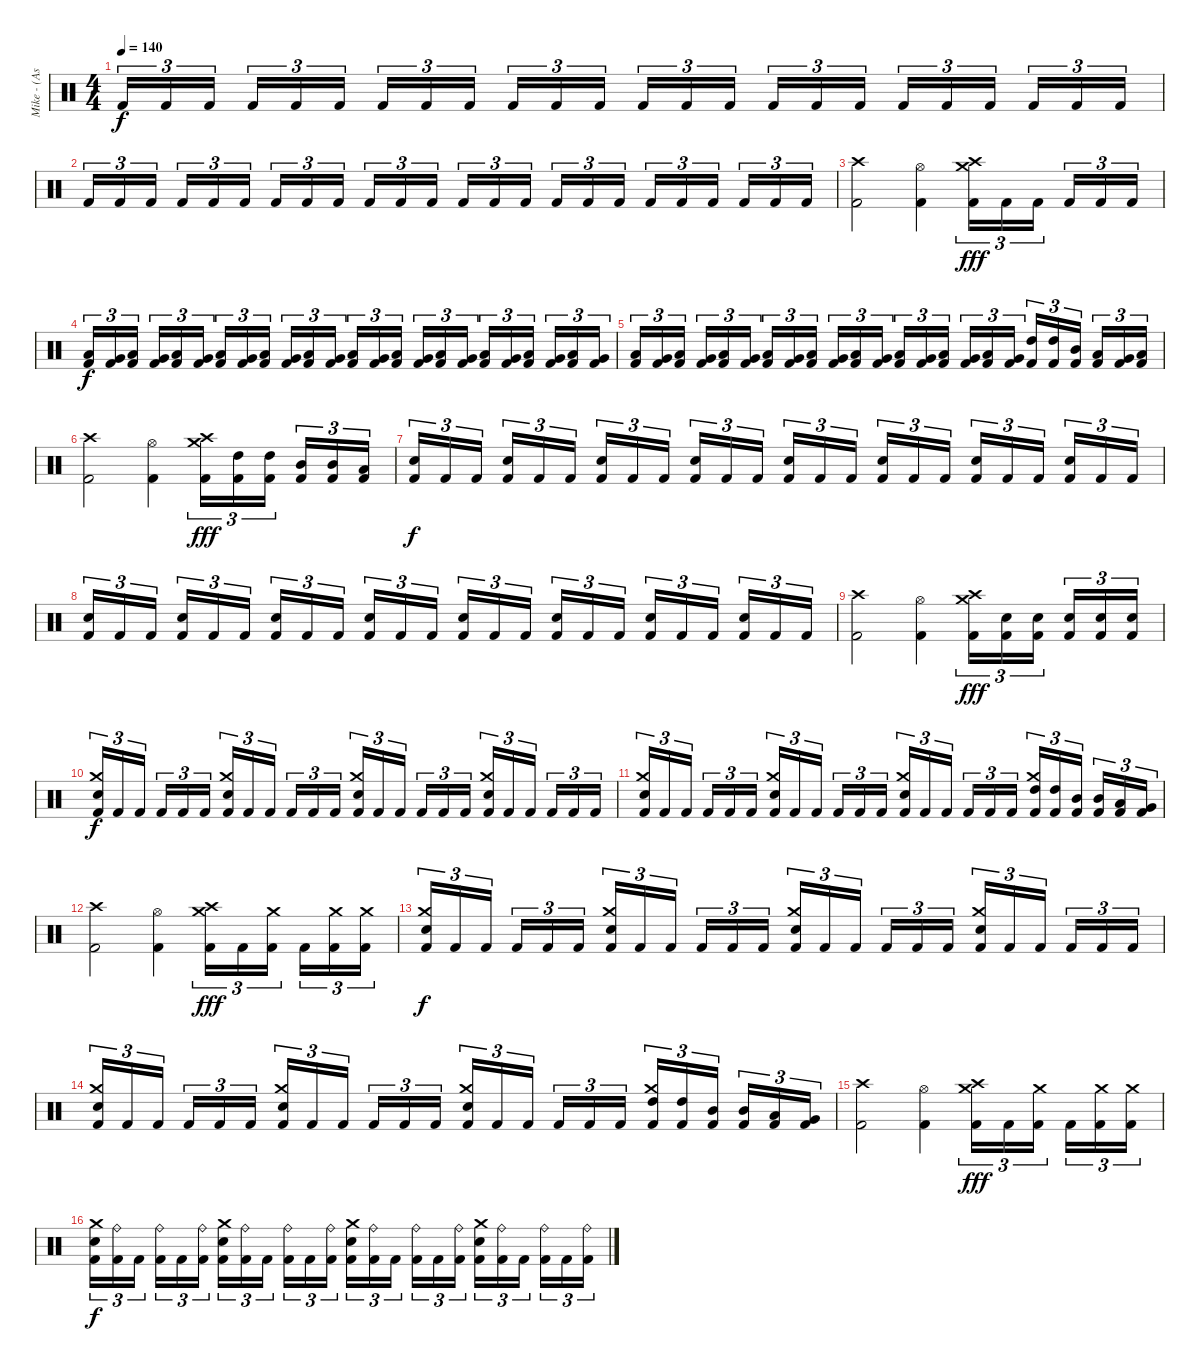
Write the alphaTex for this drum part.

\track ("Mike - (Assault and Battery)" "Mike - (As") {instrument percussion}
\staff {score}
\articulation defaults
\ts (4 4)
\tempo 140
\clef neutral
\ks c "Kick (hit) 2".16{tu (3 2) dy f balance 0} "Kick (hit) 2".16{tu (3 2)} "Kick (hit) 2".16{tu (3 2)} "Kick (hit) 2".16{tu (3 2)} "Kick (hit) 2".16{tu (3 2)} "Kick (hit) 2".16{tu (3 2)} "Kick (hit) 2".16{tu (3 2)} "Kick (hit) 2".16{tu (3 2)} "Kick (hit) 2".16{tu (3 2)} "Kick (hit) 2".16{tu (3 2)} "Kick (hit) 2".16{tu (3 2)} "Kick (hit) 2".16{tu (3 2)} "Kick (hit) 2".16{tu (3 2)} "Kick (hit) 2".16{tu (3 2)} "Kick (hit) 2".16{tu (3 2)} "Kick (hit) 2".16{tu (3 2)} "Kick (hit) 2".16{tu (3 2)} "Kick (hit) 2".16{tu (3 2)} "Kick (hit) 2".16{tu (3 2)} "Kick (hit) 2".16{tu (3 2)} "Kick (hit) 2".16{tu (3 2)} "Kick (hit) 2".16{tu (3 2)} "Kick (hit) 2".16{tu (3 2)} "Kick (hit) 2".16{tu (3 2)}
|
"Kick (hit) 2".16{tu (3 2) balance 0} "Kick (hit) 2".16{tu (3 2)} "Kick (hit) 2".16{tu (3 2)} "Kick (hit) 2".16{tu (3 2)} "Kick (hit) 2".16{tu (3 2)} "Kick (hit) 2".16{tu (3 2)} "Kick (hit) 2".16{tu (3 2)} "Kick (hit) 2".16{tu (3 2)} "Kick (hit) 2".16{tu (3 2)} "Kick (hit) 2".16{tu (3 2)} "Kick (hit) 2".16{tu (3 2)} "Kick (hit) 2".16{tu (3 2)} "Kick (hit) 2".16{tu (3 2)} "Kick (hit) 2".16{tu (3 2)} "Kick (hit) 2".16{tu (3 2)} "Kick (hit) 2".16{tu (3 2)} "Kick (hit) 2".16{tu (3 2)} "Kick (hit) 2".16{tu (3 2)} "Kick (hit) 2".16{tu (3 2)} "Kick (hit) 2".16{tu (3 2)} "Kick (hit) 2".16{tu (3 2)} "Kick (hit) 2".16{tu (3 2)} "Kick (hit) 2".16{tu (3 2)} "Kick (hit) 2".16{tu (3 2)} |
("Crash high (hit)" "Kick (hit) 2").2{balance 8} ("Hi-Hat (open)" "Kick (hit) 2").4 ("Crash medium (hit)" "Crash high (hit)" "Kick (hit) 2").16{tu (3 2) dy fff} "Kick (hit) 2".16{tu (3 2)} "Kick (hit) 2".16{tu (3 2)} "Kick (hit) 2".16{tu (3 2)} "Kick (hit) 2".16{tu (3 2)} "Kick (hit) 2".16{tu (3 2)} |
("Low Floor Tom (hit)" "Kick (hit) 2").16{tu (3 2) dy f} ("Very Low Tom (hit)" "Kick (hit) 2").16{tu (3 2)} ("Low Floor Tom (hit)" "Kick (hit) 2").16{tu (3 2)} ("Very Low Tom (hit)" "Kick (hit) 2").16{tu (3 2)} ("Low Floor Tom (hit)" "Kick (hit) 2").16{tu (3 2)} ("Very Low Tom (hit)" "Kick (hit) 2").16{tu (3 2)} ("Low Floor Tom (hit)" "Kick (hit) 2").16{tu (3 2)} ("Very Low Tom (hit)" "Kick (hit) 2").16{tu (3 2)} ("Low Floor Tom (hit)" "Kick (hit) 2").16{tu (3 2)} ("Very Low Tom (hit)" "Kick (hit) 2").16{tu (3 2)} ("Low Floor Tom (hit)" "Kick (hit) 2").16{tu (3 2)} ("Very Low Tom (hit)" "Kick (hit) 2").16{tu (3 2)} ("Low Floor Tom (hit)" "Kick (hit) 2").16{tu (3 2)} ("Very Low Tom (hit)" "Kick (hit) 2").16{tu (3 2)} ("Low Floor Tom (hit)" "Kick (hit) 2").16{tu (3 2)} ("Very Low Tom (hit)" "Kick (hit) 2").16{tu (3 2)} ("Low Floor Tom (hit)" "Kick (hit) 2").16{tu (3 2)} ("Very Low Tom (hit)" "Kick (hit) 2").16{tu (3 2)} ("Low Floor Tom (hit)" "Kick (hit) 2").16{tu (3 2)} ("Very Low Tom (hit)" "Kick (hit) 2").16{tu (3 2)} ("Low Floor Tom (hit)" "Kick (hit) 2").16{tu (3 2)} ("Very Low Tom (hit)" "Kick (hit) 2").16{tu (3 2)} ("Low Floor Tom (hit)" "Kick (hit) 2").16{tu (3 2)} ("Very Low Tom (hit)" "Kick (hit) 2").16{tu (3 2)} |
("Low Floor Tom (hit)" "Kick (hit) 2").16{tu (3 2)} ("Very Low Tom (hit)" "Kick (hit) 2").16{tu (3 2)} ("Low Floor Tom (hit)" "Kick (hit) 2").16{tu (3 2)} ("Very Low Tom (hit)" "Kick (hit) 2").16{tu (3 2)} ("Low Floor Tom (hit)" "Kick (hit) 2").16{tu (3 2)} ("Very Low Tom (hit)" "Kick (hit) 2").16{tu (3 2)} ("Low Floor Tom (hit)" "Kick (hit) 2").16{tu (3 2)} ("Very Low Tom (hit)" "Kick (hit) 2").16{tu (3 2)} ("Low Floor Tom (hit)" "Kick (hit) 2").16{tu (3 2)} ("Very Low Tom (hit)" "Kick (hit) 2").16{tu (3 2)} ("Low Floor Tom (hit)" "Kick (hit) 2").16{tu (3 2)} ("Very Low Tom (hit)" "Kick (hit) 2").16{tu (3 2)} ("Low Floor Tom (hit)" "Kick (hit) 2").16{tu (3 2)} ("Very Low Tom (hit)" "Kick (hit) 2").16{tu (3 2)} ("Low Floor Tom (hit)" "Kick (hit) 2").16{tu (3 2)} ("Very Low Tom (hit)" "Kick (hit) 2").16{tu (3 2)} ("Low Floor Tom (hit)" "Kick (hit) 2").16{tu (3 2)} ("Very Low Tom (hit)" "Kick (hit) 2").16{tu (3 2)} ("High Tom (hit)" "Kick (hit) 2").16{tu (3 2)} ("High Tom (hit)" "Kick (hit) 2").16{tu (3 2)} ("Mid Tom (hit)" "Kick (hit) 2").16{tu (3 2)} ("Low Tom (hit)" "Kick (hit) 2").16{tu (3 2)} ("Very Low Tom (hit)" "Kick (hit) 2").16{tu (3 2)} ("Low Floor Tom (hit)" "Kick (hit) 2").16{tu (3 2)} |
("Crash high (hit)" "Kick (hit) 2").2 ("Hi-Hat (open)" "Kick (hit) 2").4 ("Crash medium (hit)" "Crash high (hit)" "Kick (hit) 2").16{tu (3 2) dy fff} ("High Tom (hit)" "Kick (hit) 2").16{tu (3 2)} ("High Tom (hit)" "Kick (hit) 2").16{tu (3 2)} ("Mid Tom (hit)" "Kick (hit) 2").16{tu (3 2)} ("Mid Tom (hit)" "Kick (hit) 2").16{tu (3 2)} ("Low Tom (hit)" "Kick (hit) 2").16{tu (3 2)} |
("Electric Snare (hit)" "Kick (hit) 2").16{tu (3 2) dy f} "Kick (hit) 2".16{tu (3 2)} "Kick (hit) 2".16{tu (3 2)} ("Electric Snare (hit)" "Kick (hit) 2").16{tu (3 2)} "Kick (hit) 2".16{tu (3 2)} "Kick (hit) 2".16{tu (3 2)} ("Electric Snare (hit)" "Kick (hit) 2").16{tu (3 2)} "Kick (hit) 2".16{tu (3 2)} "Kick (hit) 2".16{tu (3 2)} ("Electric Snare (hit)" "Kick (hit) 2").16{tu (3 2)} "Kick (hit) 2".16{tu (3 2)} "Kick (hit) 2".16{tu (3 2)} ("Electric Snare (hit)" "Kick (hit) 2").16{tu (3 2)} "Kick (hit) 2".16{tu (3 2)} "Kick (hit) 2".16{tu (3 2)} ("Electric Snare (hit)" "Kick (hit) 2").16{tu (3 2)} "Kick (hit) 2".16{tu (3 2)} "Kick (hit) 2".16{tu (3 2)} ("Electric Snare (hit)" "Kick (hit) 2").16{tu (3 2)} "Kick (hit) 2".16{tu (3 2)} "Kick (hit) 2".16{tu (3 2)} ("Electric Snare (hit)" "Kick (hit) 2").16{tu (3 2)} "Kick (hit) 2".16{tu (3 2)} "Kick (hit) 2".16{tu (3 2)} |
("Electric Snare (hit)" "Kick (hit) 2").16{tu (3 2)} "Kick (hit) 2".16{tu (3 2)} "Kick (hit) 2".16{tu (3 2)} ("Electric Snare (hit)" "Kick (hit) 2").16{tu (3 2)} "Kick (hit) 2".16{tu (3 2)} "Kick (hit) 2".16{tu (3 2)} ("Electric Snare (hit)" "Kick (hit) 2").16{tu (3 2)} "Kick (hit) 2".16{tu (3 2)} "Kick (hit) 2".16{tu (3 2)} ("Electric Snare (hit)" "Kick (hit) 2").16{tu (3 2)} "Kick (hit) 2".16{tu (3 2)} "Kick (hit) 2".16{tu (3 2)} ("Electric Snare (hit)" "Kick (hit) 2").16{tu (3 2)} "Kick (hit) 2".16{tu (3 2)} "Kick (hit) 2".16{tu (3 2)} ("Electric Snare (hit)" "Kick (hit) 2").16{tu (3 2)} "Kick (hit) 2".16{tu (3 2)} "Kick (hit) 2".16{tu (3 2)} ("Electric Snare (hit)" "Kick (hit) 2").16{tu (3 2)} "Kick (hit) 2".16{tu (3 2)} "Kick (hit) 2".16{tu (3 2)} ("Electric Snare (hit)" "Kick (hit) 2").16{tu (3 2)} "Kick (hit) 2".16{tu (3 2)} "Kick (hit) 2".16{tu (3 2)} |
("Crash high (hit)" "Kick (hit) 2").2 ("Hi-Hat (open)" "Kick (hit) 2").4 ("Crash medium (hit)" "Crash high (hit)" "Kick (hit) 2").16{tu (3 2) dy fff} ("Electric Snare (hit)" "Kick (hit) 2").16{tu (3 2)} ("Electric Snare (hit)" "Kick (hit) 2").16{tu (3 2)} ("Electric Snare (hit)" "Kick (hit) 2").16{tu (3 2)} ("Electric Snare (hit)" "Kick (hit) 2").16{tu (3 2)} ("Electric Snare (hit)" "Kick (hit) 2").16{tu (3 2)} |
("Crash medium (hit)" "Electric Snare (hit)" "Kick (hit) 2").16{tu (3 2) dy f} "Kick (hit) 2".16{tu (3 2)} "Kick (hit) 2".16{tu (3 2)} "Kick (hit) 2".16{tu (3 2)} "Kick (hit) 2".16{tu (3 2)} "Kick (hit) 2".16{tu (3 2)} ("Crash medium (hit)" "Electric Snare (hit)" "Kick (hit) 2").16{tu (3 2)} "Kick (hit) 2".16{tu (3 2)} "Kick (hit) 2".16{tu (3 2)} "Kick (hit) 2".16{tu (3 2)} "Kick (hit) 2".16{tu (3 2)} "Kick (hit) 2".16{tu (3 2)} ("Crash medium (hit)" "Electric Snare (hit)" "Kick (hit) 2").16{tu (3 2)} "Kick (hit) 2".16{tu (3 2)} "Kick (hit) 2".16{tu (3 2)} "Kick (hit) 2".16{tu (3 2)} "Kick (hit) 2".16{tu (3 2)} "Kick (hit) 2".16{tu (3 2)} ("Crash medium (hit)" "Electric Snare (hit)" "Kick (hit) 2").16{tu (3 2)} "Kick (hit) 2".16{tu (3 2)} "Kick (hit) 2".16{tu (3 2)} "Kick (hit) 2".16{tu (3 2)} "Kick (hit) 2".16{tu (3 2)} "Kick (hit) 2".16{tu (3 2)} |
("Crash medium (hit)" "Electric Snare (hit)" "Kick (hit) 2").16{tu (3 2)} "Kick (hit) 2".16{tu (3 2)} "Kick (hit) 2".16{tu (3 2)} "Kick (hit) 2".16{tu (3 2)} "Kick (hit) 2".16{tu (3 2)} "Kick (hit) 2".16{tu (3 2)} ("Crash medium (hit)" "Electric Snare (hit)" "Kick (hit) 2").16{tu (3 2)} "Kick (hit) 2".16{tu (3 2)} "Kick (hit) 2".16{tu (3 2)} "Kick (hit) 2".16{tu (3 2)} "Kick (hit) 2".16{tu (3 2)} "Kick (hit) 2".16{tu (3 2)} ("Crash medium (hit)" "Electric Snare (hit)" "Kick (hit) 2").16{tu (3 2)} "Kick (hit) 2".16{tu (3 2)} "Kick (hit) 2".16{tu (3 2)} "Kick (hit) 2".16{tu (3 2)} "Kick (hit) 2".16{tu (3 2)} "Kick (hit) 2".16{tu (3 2)} ("Crash medium (hit)" "High Tom (hit)" "Kick (hit) 2").16{tu (3 2)} ("High Tom (hit)" "Kick (hit) 2").16{tu (3 2)} ("Mid Tom (hit)" "Kick (hit) 2").16{tu (3 2)} ("Mid Tom (hit)" "Kick (hit) 2").16{tu (3 2)} ("Low Tom (hit)" "Kick (hit) 2").16{tu (3 2)} ("Very Low Tom (hit)" "Kick (hit) 2").16{tu (3 2)} |
("Crash high (hit)" "Kick (hit) 2").2 ("Hi-Hat (open)" "Kick (hit) 2").4 ("Crash medium (hit)" "Crash high (hit)" "Kick (hit) 2").16{tu (3 2) dy fff} "Kick (hit) 2".16{tu (3 2)} ("Crash medium (hit)" "Kick (hit) 2").16{tu (3 2)} "Kick (hit) 2".16{tu (3 2)} ("Crash medium (hit)" "Kick (hit) 2").16{tu (3 2)} ("Crash medium (hit)" "Kick (hit) 2").16{tu (3 2)} |
("Crash medium (hit)" "Electric Snare (hit)" "Kick (hit) 2").16{tu (3 2) dy f} "Kick (hit) 2".16{tu (3 2)} "Kick (hit) 2".16{tu (3 2)} "Kick (hit) 2".16{tu (3 2)} "Kick (hit) 2".16{tu (3 2)} "Kick (hit) 2".16{tu (3 2)} ("Crash medium (hit)" "Electric Snare (hit)" "Kick (hit) 2").16{tu (3 2)} "Kick (hit) 2".16{tu (3 2)} "Kick (hit) 2".16{tu (3 2)} "Kick (hit) 2".16{tu (3 2)} "Kick (hit) 2".16{tu (3 2)} "Kick (hit) 2".16{tu (3 2)} ("Crash medium (hit)" "Electric Snare (hit)" "Kick (hit) 2").16{tu (3 2)} "Kick (hit) 2".16{tu (3 2)} "Kick (hit) 2".16{tu (3 2)} "Kick (hit) 2".16{tu (3 2)} "Kick (hit) 2".16{tu (3 2)} "Kick (hit) 2".16{tu (3 2)} ("Crash medium (hit)" "Electric Snare (hit)" "Kick (hit) 2").16{tu (3 2)} "Kick (hit) 2".16{tu (3 2)} "Kick (hit) 2".16{tu (3 2)} "Kick (hit) 2".16{tu (3 2)} "Kick (hit) 2".16{tu (3 2)} "Kick (hit) 2".16{tu (3 2)} |
("Crash medium (hit)" "Electric Snare (hit)" "Kick (hit) 2").16{tu (3 2)} "Kick (hit) 2".16{tu (3 2)} "Kick (hit) 2".16{tu (3 2)} "Kick (hit) 2".16{tu (3 2)} "Kick (hit) 2".16{tu (3 2)} "Kick (hit) 2".16{tu (3 2)} ("Crash medium (hit)" "Electric Snare (hit)" "Kick (hit) 2").16{tu (3 2)} "Kick (hit) 2".16{tu (3 2)} "Kick (hit) 2".16{tu (3 2)} "Kick (hit) 2".16{tu (3 2)} "Kick (hit) 2".16{tu (3 2)} "Kick (hit) 2".16{tu (3 2)} ("Crash medium (hit)" "Electric Snare (hit)" "Kick (hit) 2").16{tu (3 2)} "Kick (hit) 2".16{tu (3 2)} "Kick (hit) 2".16{tu (3 2)} "Kick (hit) 2".16{tu (3 2)} "Kick (hit) 2".16{tu (3 2)} "Kick (hit) 2".16{tu (3 2)} ("Crash medium (hit)" "High Tom (hit)" "Kick (hit) 2").16{tu (3 2)} ("High Tom (hit)" "Kick (hit) 2").16{tu (3 2)} ("Mid Tom (hit)" "Kick (hit) 2").16{tu (3 2)} ("Mid Tom (hit)" "Kick (hit) 2").16{tu (3 2)} ("Low Tom (hit)" "Kick (hit) 2").16{tu (3 2)} ("Very Low Tom (hit)" "Kick (hit) 2").16{tu (3 2)} |
("Crash high (hit)" "Kick (hit) 2").2 ("Hi-Hat (open)" "Kick (hit) 2").4 ("Crash medium (hit)" "Crash high (hit)" "Kick (hit) 2").16{tu (3 2) dy fff} "Kick (hit) 2".16{tu (3 2)} ("Crash medium (hit)" "Kick (hit) 2").16{tu (3 2)} "Kick (hit) 2".16{tu (3 2)} ("Crash medium (hit)" "Kick (hit) 2").16{tu (3 2)} ("Crash medium (hit)" "Kick (hit) 2").16{tu (3 2)} |
("Crash medium (hit)" "Electric Snare (hit)" "Kick (hit) 2").16{tu (3 2) dy f} ("Ride (bell)" "Kick (hit) 2").16{tu (3 2)} "Kick (hit) 2".16{tu (3 2)} ("Ride (bell)" "Kick (hit) 2").16{tu (3 2)} "Kick (hit) 2".16{tu (3 2)} ("Ride (bell)" "Kick (hit) 2").16{tu (3 2)} ("Crash medium (hit)" "Electric Snare (hit)" "Kick (hit) 2").16{tu (3 2)} ("Ride (bell)" "Kick (hit) 2").16{tu (3 2)} "Kick (hit) 2".16{tu (3 2)} ("Ride (bell)" "Kick (hit) 2").16{tu (3 2)} "Kick (hit) 2".16{tu (3 2)} ("Ride (bell)" "Kick (hit) 2").16{tu (3 2)} ("Crash medium (hit)" "Electric Snare (hit)" "Kick (hit) 2").16{tu (3 2)} ("Ride (bell)" "Kick (hit) 2").16{tu (3 2)} "Kick (hit) 2".16{tu (3 2)} ("Ride (bell)" "Kick (hit) 2").16{tu (3 2)} "Kick (hit) 2".16{tu (3 2)} ("Ride (bell)" "Kick (hit) 2").16{tu (3 2)} ("Crash medium (hit)" "Electric Snare (hit)" "Kick (hit) 2").16{tu (3 2)} ("Ride (bell)" "Kick (hit) 2").16{tu (3 2)} "Kick (hit) 2".16{tu (3 2)} ("Ride (bell)" "Kick (hit) 2").16{tu (3 2)} "Kick (hit) 2".16{tu (3 2)} ("Ride (bell)" "Kick (hit) 2").16{tu (3 2)}
